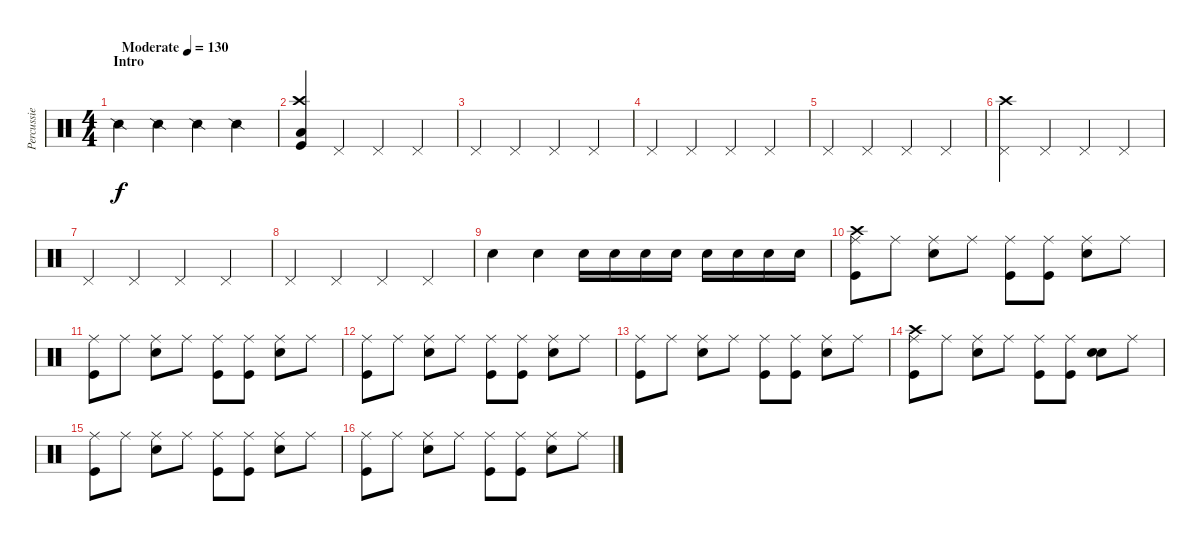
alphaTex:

\track ("Percussie" "Percussie") {instrument percussion}
\staff {score}
\articulation defaults
\ts (4 4)
\section ("" "Intro")
\tempo (130 "Moderate")
\clef neutral
\ks c "Snare (side stick) 2".4{dy f} "Snare (side stick) 2".4 "Snare (side stick) 2".4 "Snare (side stick) 2".4
|
("Low Tom (hit)" "Crash high (hit)" "Kick (hit)").4 "Pedal Hi-Hat (hit)".4 "Pedal Hi-Hat (hit)".4 "Pedal Hi-Hat (hit)".4 |
"Pedal Hi-Hat (hit)".4 "Pedal Hi-Hat (hit)".4 "Pedal Hi-Hat (hit)".4 "Pedal Hi-Hat (hit)".4 |
"Pedal Hi-Hat (hit)".4 "Pedal Hi-Hat (hit)".4 "Pedal Hi-Hat (hit)".4 "Pedal Hi-Hat (hit)".4 |
"Pedal Hi-Hat (hit)".4 "Pedal Hi-Hat (hit)".4 "Pedal Hi-Hat (hit)".4 "Pedal Hi-Hat (hit)".4 |
("Crash high (hit)" "Pedal Hi-Hat (hit)").4 "Pedal Hi-Hat (hit)".4 "Pedal Hi-Hat (hit)".4 "Pedal Hi-Hat (hit)".4 |
"Pedal Hi-Hat (hit)".4 "Pedal Hi-Hat (hit)".4 "Pedal Hi-Hat (hit)".4 "Pedal Hi-Hat (hit)".4 |
"Pedal Hi-Hat (hit)".4 "Pedal Hi-Hat (hit)".4 "Pedal Hi-Hat (hit)".4 "Pedal Hi-Hat (hit)".4 |
"Snare (hit) 2".4 "Snare (hit) 2".4 "Snare (hit) 2".16 "Snare (hit) 2".16 "Snare (hit) 2".16 "Snare (hit) 2".16 "Snare (hit) 2".16 "Snare (hit) 2".16 "Snare (hit) 2".16 "Snare (hit) 2".16 |
("Crash high (hit)" "Ride (middle)" "Kick (hit)").8 "Ride (middle)".8 ("Ride (middle)" "Snare (hit) 2").8 "Ride (middle)".8 ("Ride (middle)" "Kick (hit)").8 ("Ride (middle)" "Kick (hit)").8 ("Ride (middle)" "Snare (hit) 2").8 "Ride (middle)".8 |
("Ride (middle)" "Kick (hit)").8 "Ride (middle)".8 ("Ride (middle)" "Snare (hit) 2").8 "Ride (middle)".8 ("Ride (middle)" "Kick (hit)").8 ("Ride (middle)" "Kick (hit)").8 ("Ride (middle)" "Snare (hit) 2").8 "Ride (middle)".8 |
("Ride (middle)" "Kick (hit)").8 "Ride (middle)".8 ("Ride (middle)" "Snare (hit) 2").8 "Ride (middle)".8 ("Ride (middle)" "Kick (hit)").8 ("Ride (middle)" "Kick (hit)").8 ("Ride (middle)" "Snare (hit) 2").8 "Ride (middle)".8 |
("Ride (middle)" "Kick (hit)").8 "Ride (middle)".8 ("Ride (middle)" "Snare (hit) 2").8 "Ride (middle)".8 ("Ride (middle)" "Kick (hit)").8 ("Ride (middle)" "Kick (hit)").8 ("Ride (middle)" "Snare (hit) 2").8 "Ride (middle)".8 |
("Crash high (hit)" "Ride (middle)" "Kick (hit)").8 "Ride (middle)".8 ("Ride (middle)" "Snare (hit) 2").8 "Ride (middle)".8 ("Ride (middle)" "Kick (hit)").8 ("Ride (middle)" "Kick (hit)").8 ("Snare (hit)" "Snare (hit) 2").8 "Ride (middle)".8 |
("Ride (middle)" "Kick (hit)").8 "Ride (middle)".8 ("Ride (middle)" "Snare (hit) 2").8 "Ride (middle)".8 ("Ride (middle)" "Kick (hit)").8 ("Ride (middle)" "Kick (hit)").8 ("Ride (middle)" "Snare (hit) 2").8 "Ride (middle)".8 |
("Ride (middle)" "Kick (hit)").8 "Ride (middle)".8 ("Ride (middle)" "Snare (hit) 2").8 "Ride (middle)".8 ("Ride (middle)" "Kick (hit)").8 ("Ride (middle)" "Kick (hit)").8 ("Ride (middle)" "Snare (hit) 2").8 "Ride (middle)".8
